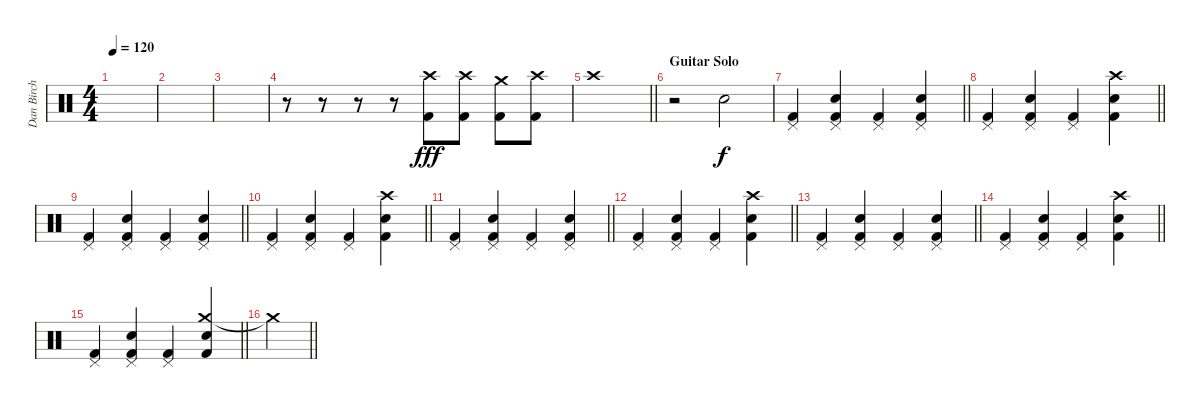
\track ("Dan Birch" "Dan Birch") {instrument percussion}
\staff {score}
\articulation defaults
\ts (4 4)
\tempo 120
\clef neutral
\ks c
|
|
|
r.8 r.8 r.8 r.8 ("Crash high (hit)" "Kick (hit) 2").8{dy fff} ("Crash high (hit)" "Kick (hit) 2").8 ("Crash medium (hit)" "Kick (hit) 2").8 ("Crash high (hit)" "Kick (hit) 2").8 |
\barLineRight lightlight "Crash high (hit)".1
|
\section ("" "Guitar Solo")
r.2 "Snare (hit) 2".2{dy f} |
\barLineRight lightlight
("Pedal Hi-Hat (hit)" "Kick (hit) 2").4 ("Pedal Hi-Hat (hit)" "Snare (hit) 2" "Kick (hit) 2").4 ("Pedal Hi-Hat (hit)" "Kick (hit) 2").4 ("Pedal Hi-Hat (hit)" "Snare (hit) 2" "Kick (hit) 2").4 |
\barLineRight lightlight
("Pedal Hi-Hat (hit)" "Kick (hit) 2").4 ("Pedal Hi-Hat (hit)" "Snare (hit) 2" "Kick (hit) 2").4 ("Pedal Hi-Hat (hit)" "Kick (hit) 2").4 ("Crash high (hit)" "Snare (hit) 2" "Kick (hit) 2").4 |
\barLineRight lightlight
("Pedal Hi-Hat (hit)" "Kick (hit) 2").4 ("Pedal Hi-Hat (hit)" "Snare (hit) 2" "Kick (hit) 2").4 ("Pedal Hi-Hat (hit)" "Kick (hit) 2").4 ("Pedal Hi-Hat (hit)" "Snare (hit) 2" "Kick (hit) 2").4 |
\barLineRight lightlight
("Pedal Hi-Hat (hit)" "Kick (hit) 2").4 ("Pedal Hi-Hat (hit)" "Snare (hit) 2" "Kick (hit) 2").4 ("Pedal Hi-Hat (hit)" "Kick (hit) 2").4 ("Crash high (hit)" "Snare (hit) 2" "Kick (hit) 2").4 |
\barLineRight lightlight
("Pedal Hi-Hat (hit)" "Kick (hit) 2").4 ("Pedal Hi-Hat (hit)" "Snare (hit) 2" "Kick (hit) 2").4 ("Pedal Hi-Hat (hit)" "Kick (hit) 2").4 ("Pedal Hi-Hat (hit)" "Snare (hit) 2" "Kick (hit) 2").4 |
\barLineRight lightlight
("Pedal Hi-Hat (hit)" "Kick (hit) 2").4 ("Pedal Hi-Hat (hit)" "Snare (hit) 2" "Kick (hit) 2").4 ("Pedal Hi-Hat (hit)" "Kick (hit) 2").4 ("Crash high (hit)" "Snare (hit) 2" "Kick (hit) 2").4 |
\barLineRight lightlight
("Pedal Hi-Hat (hit)" "Kick (hit) 2").4 ("Pedal Hi-Hat (hit)" "Snare (hit) 2" "Kick (hit) 2").4 ("Pedal Hi-Hat (hit)" "Kick (hit) 2").4 ("Pedal Hi-Hat (hit)" "Snare (hit) 2" "Kick (hit) 2").4 |
\barLineRight lightlight
("Pedal Hi-Hat (hit)" "Kick (hit) 2").4 ("Pedal Hi-Hat (hit)" "Snare (hit) 2" "Kick (hit) 2").4 ("Pedal Hi-Hat (hit)" "Kick (hit) 2").4 ("Crash high (hit)" "Snare (hit) 2" "Kick (hit) 2").4 |
\barLineRight lightlight
("Pedal Hi-Hat (hit)" "Kick (hit) 2").4 ("Pedal Hi-Hat (hit)" "Snare (hit) 2" "Kick (hit) 2").4 ("Pedal Hi-Hat (hit)" "Kick (hit) 2").4 ("Crash medium (hit)" "Snare (hit) 2" "Kick (hit) 2").4 |
\barLineRight lightlight "Crash medium (hit)"{t}.4
